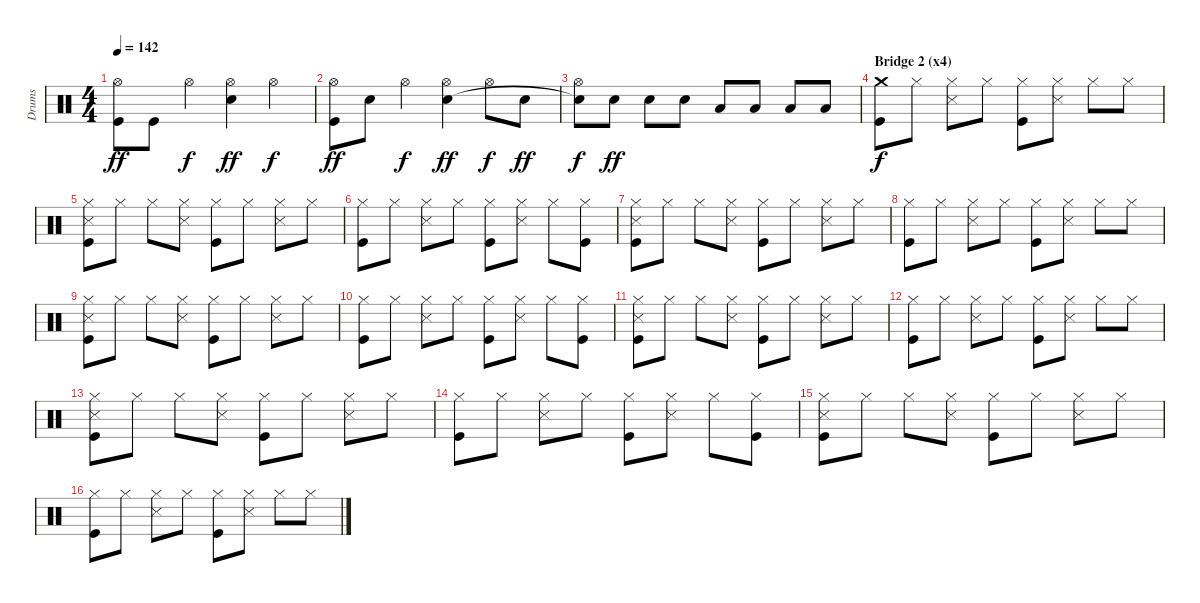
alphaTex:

\track ("Drums" "Drums") {instrument percussion}
\staff {score}
\articulation defaults
\ts (4 4)
\tempo 142
\clef neutral
\ks c
("Hi-Hat (open)" "Kick (hit)").8{dy ff} "Kick (hit)".8 "Hi-Hat (open)".4{dy f} ("Hi-Hat (open)" "Snare (hit) 2").4{dy ff} "Hi-Hat (open)".4{dy f} |
("Hi-Hat (open)" "Kick (hit)").8{dy ff} "Snare (hit) 2".8 "Hi-Hat (open)".4{dy f} ("Hi-Hat (open)" "Snare (hit) 2").4{dy ff} "Hi-Hat (open)".8{dy f} "Snare (hit) 2".8{dy ff} |
("Hi-Hat (open)" "Snare (hit) 2"{t}).8{dy f} "Snare (hit) 2".8{dy ff} "Snare (hit) 2".8 "Snare (hit) 2".8 "Low Tom (hit)".8 "Low Tom (hit)".8 "Low Tom (hit)".8 "Low Tom (hit)".8 |
\section ("" "Bridge 2 (x4)")
("Crash medium (hit)" "Kick (hit)").8{dy f} "Hi-Hat (closed)".8 ("Hi-Hat (closed)" "Snare (side stick) 3").8 "Hi-Hat (closed)".8 ("Hi-Hat (closed)" "Kick (hit)").8 ("Hi-Hat (closed)" "Snare (side stick) 3").8 "Hi-Hat (closed)".8 "Hi-Hat (closed)".8 |
("Hi-Hat (closed)" "Snare (side stick) 3" "Kick (hit)").8 "Hi-Hat (closed)".8 "Hi-Hat (closed)".8 ("Hi-Hat (closed)" "Snare (side stick) 3").8 ("Hi-Hat (closed)" "Kick (hit)").8 "Hi-Hat (closed)".8 ("Hi-Hat (closed)" "Snare (side stick) 3").8 "Hi-Hat (closed)".8 |
("Hi-Hat (closed)" "Kick (hit)").8 "Hi-Hat (closed)".8 ("Hi-Hat (closed)" "Snare (side stick) 3").8 "Hi-Hat (closed)".8 ("Hi-Hat (closed)" "Kick (hit)").8 ("Hi-Hat (closed)" "Snare (side stick) 3").8 "Hi-Hat (closed)".8 ("Hi-Hat (closed)" "Kick (hit)").8 |
("Hi-Hat (closed)" "Snare (side stick) 3" "Kick (hit)").8 "Hi-Hat (closed)".8 "Hi-Hat (closed)".8 ("Hi-Hat (closed)" "Snare (side stick) 3").8 ("Hi-Hat (closed)" "Kick (hit)").8 "Hi-Hat (closed)".8 ("Hi-Hat (closed)" "Snare (side stick) 3").8 "Hi-Hat (closed)".8 |
("Hi-Hat (closed)" "Kick (hit)").8 "Hi-Hat (closed)".8 ("Hi-Hat (closed)" "Snare (side stick) 3").8 "Hi-Hat (closed)".8 ("Hi-Hat (closed)" "Kick (hit)").8 ("Hi-Hat (closed)" "Snare (side stick) 3").8 "Hi-Hat (closed)".8 "Hi-Hat (closed)".8 |
("Hi-Hat (closed)" "Snare (side stick) 3" "Kick (hit)").8 "Hi-Hat (closed)".8 "Hi-Hat (closed)".8 ("Hi-Hat (closed)" "Snare (side stick) 3").8 ("Hi-Hat (closed)" "Kick (hit)").8 "Hi-Hat (closed)".8 ("Hi-Hat (closed)" "Snare (side stick) 3").8 "Hi-Hat (closed)".8 |
("Hi-Hat (closed)" "Kick (hit)").8 "Hi-Hat (closed)".8 ("Hi-Hat (closed)" "Snare (side stick) 3").8 "Hi-Hat (closed)".8 ("Hi-Hat (closed)" "Kick (hit)").8 ("Hi-Hat (closed)" "Snare (side stick) 3").8 "Hi-Hat (closed)".8 ("Hi-Hat (closed)" "Kick (hit)").8 |
("Hi-Hat (closed)" "Snare (side stick) 3" "Kick (hit)").8 "Hi-Hat (closed)".8 "Hi-Hat (closed)".8 ("Hi-Hat (closed)" "Snare (side stick) 3").8 ("Hi-Hat (closed)" "Kick (hit)").8 "Hi-Hat (closed)".8 ("Hi-Hat (closed)" "Snare (side stick) 3").8 "Hi-Hat (closed)".8 |
("Hi-Hat (closed)" "Kick (hit)").8 "Hi-Hat (closed)".8 ("Hi-Hat (closed)" "Snare (side stick) 3").8 "Hi-Hat (closed)".8 ("Hi-Hat (closed)" "Kick (hit)").8 ("Hi-Hat (closed)" "Snare (side stick) 3").8 "Hi-Hat (closed)".8 "Hi-Hat (closed)".8 |
("Hi-Hat (closed)" "Snare (side stick) 3" "Kick (hit)").8 "Hi-Hat (closed)".8 "Hi-Hat (closed)".8 ("Hi-Hat (closed)" "Snare (side stick) 3").8 ("Hi-Hat (closed)" "Kick (hit)").8 "Hi-Hat (closed)".8 ("Hi-Hat (closed)" "Snare (side stick) 3").8 "Hi-Hat (closed)".8 |
("Hi-Hat (closed)" "Kick (hit)").8 "Hi-Hat (closed)".8 ("Hi-Hat (closed)" "Snare (side stick) 3").8 "Hi-Hat (closed)".8 ("Hi-Hat (closed)" "Kick (hit)").8 ("Hi-Hat (closed)" "Snare (side stick) 3").8 "Hi-Hat (closed)".8 ("Hi-Hat (closed)" "Kick (hit)").8 |
("Hi-Hat (closed)" "Snare (side stick) 3" "Kick (hit)").8 "Hi-Hat (closed)".8 "Hi-Hat (closed)".8 ("Hi-Hat (closed)" "Snare (side stick) 3").8 ("Hi-Hat (closed)" "Kick (hit)").8 "Hi-Hat (closed)".8 ("Hi-Hat (closed)" "Snare (side stick) 3").8 "Hi-Hat (closed)".8 |
("Hi-Hat (closed)" "Kick (hit)").8 "Hi-Hat (closed)".8 ("Hi-Hat (closed)" "Snare (side stick) 3").8 "Hi-Hat (closed)".8 ("Hi-Hat (closed)" "Kick (hit)").8 ("Hi-Hat (closed)" "Snare (side stick) 3").8 "Hi-Hat (closed)".8 "Hi-Hat (closed)".8
